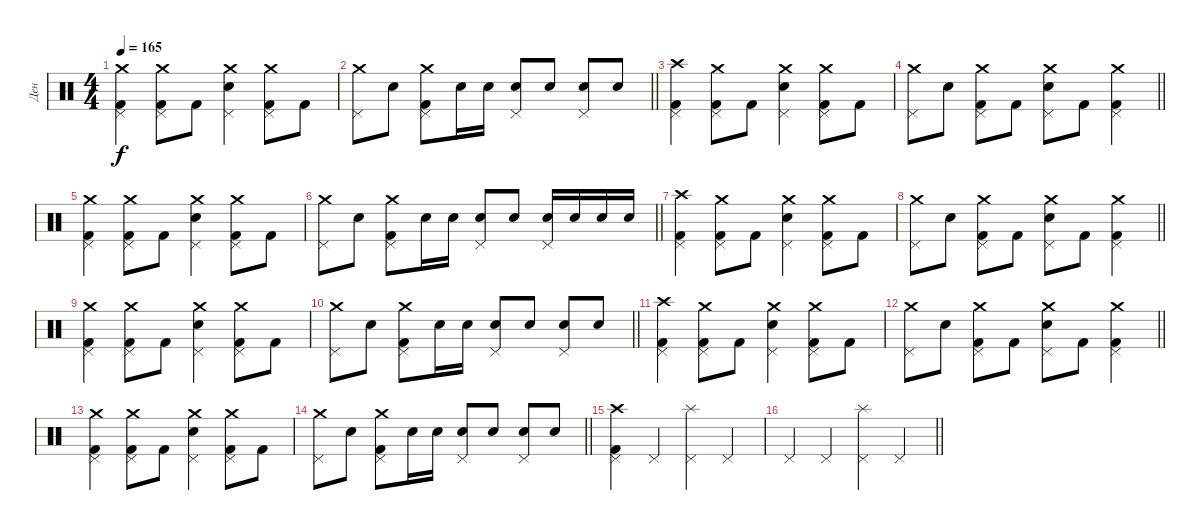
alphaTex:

\track ("Ден" "Ден") {instrument percussion}
\staff {score}
\articulation defaults
\ts (4 4)
\tempo 165
\clef neutral
\ks c
("Crash medium (hit)" "Kick (hit) 2" "Pedal Hi-Hat (hit)").4{dy f} ("Crash medium (hit)" "Kick (hit) 2" "Pedal Hi-Hat (hit)").8 "Kick (hit) 2".8 ("Crash medium (hit)" "Snare (hit) 2" "Pedal Hi-Hat (hit)").4 ("Crash medium (hit)" "Kick (hit) 2" "Pedal Hi-Hat (hit)").8 "Kick (hit) 2".8 |
\barLineRight lightlight
("Crash medium (hit)" "Pedal Hi-Hat (hit)").8 "Snare (hit) 2".8 ("Crash medium (hit)" "Kick (hit) 2" "Pedal Hi-Hat (hit)").8 "Snare (hit) 2".16 "Snare (hit) 2".16 ("Snare (hit) 2" "Pedal Hi-Hat (hit)").8 "Snare (hit) 2".8 ("Snare (hit) 2" "Pedal Hi-Hat (hit)").8 "Snare (hit) 2".8 |
("Crash high (hit)" "Kick (hit) 2" "Pedal Hi-Hat (hit)").4 ("Crash medium (hit)" "Kick (hit) 2" "Pedal Hi-Hat (hit)").8 "Kick (hit) 2".8 ("Crash medium (hit)" "Snare (hit) 2" "Pedal Hi-Hat (hit)").4 ("Crash medium (hit)" "Kick (hit) 2" "Pedal Hi-Hat (hit)").8 "Kick (hit) 2".8 |
\barLineRight lightlight
("Crash medium (hit)" "Pedal Hi-Hat (hit)").8 "Snare (hit) 2".8 ("Crash medium (hit)" "Kick (hit) 2" "Pedal Hi-Hat (hit)").8 "Kick (hit) 2".8 ("Crash medium (hit)" "Snare (hit) 2" "Pedal Hi-Hat (hit)").8 "Kick (hit) 2".8 ("Crash medium (hit)" "Kick (hit) 2" "Pedal Hi-Hat (hit)").4 |
("Crash medium (hit)" "Kick (hit) 2" "Pedal Hi-Hat (hit)").4 ("Crash medium (hit)" "Kick (hit) 2" "Pedal Hi-Hat (hit)").8 "Kick (hit) 2".8 ("Crash medium (hit)" "Snare (hit) 2" "Pedal Hi-Hat (hit)").4 ("Crash medium (hit)" "Kick (hit) 2" "Pedal Hi-Hat (hit)").8 "Kick (hit) 2".8 |
\barLineRight lightlight
("Crash medium (hit)" "Pedal Hi-Hat (hit)").8 "Snare (hit) 2".8 ("Crash medium (hit)" "Kick (hit) 2" "Pedal Hi-Hat (hit)").8 "Snare (hit) 2".16 "Snare (hit) 2".16 ("Snare (hit) 2" "Pedal Hi-Hat (hit)").8 "Snare (hit) 2".8 ("Snare (hit) 2" "Pedal Hi-Hat (hit)").16 "Snare (hit) 2".16 "Snare (hit) 2".16 "Snare (hit) 2".16 |
("Crash high (hit)" "Kick (hit) 2" "Pedal Hi-Hat (hit)").4 ("Crash medium (hit)" "Kick (hit) 2" "Pedal Hi-Hat (hit)").8 "Kick (hit) 2".8 ("Crash medium (hit)" "Snare (hit) 2" "Pedal Hi-Hat (hit)").4 ("Crash medium (hit)" "Kick (hit) 2" "Pedal Hi-Hat (hit)").8 "Kick (hit) 2".8 |
\barLineRight lightlight
("Crash medium (hit)" "Pedal Hi-Hat (hit)").8 "Snare (hit) 2".8 ("Crash medium (hit)" "Kick (hit) 2" "Pedal Hi-Hat (hit)").8 "Kick (hit) 2".8 ("Crash medium (hit)" "Snare (hit) 2" "Pedal Hi-Hat (hit)").8 "Kick (hit) 2".8 ("Crash medium (hit)" "Kick (hit) 2" "Pedal Hi-Hat (hit)").4 |
("Crash medium (hit)" "Kick (hit) 2" "Pedal Hi-Hat (hit)").4 ("Crash medium (hit)" "Kick (hit) 2" "Pedal Hi-Hat (hit)").8 "Kick (hit) 2".8 ("Crash medium (hit)" "Snare (hit) 2" "Pedal Hi-Hat (hit)").4 ("Crash medium (hit)" "Kick (hit) 2" "Pedal Hi-Hat (hit)").8 "Kick (hit) 2".8 |
\barLineRight lightlight
("Crash medium (hit)" "Pedal Hi-Hat (hit)").8 "Snare (hit) 2".8 ("Crash medium (hit)" "Kick (hit) 2" "Pedal Hi-Hat (hit)").8 "Snare (hit) 2".16 "Snare (hit) 2".16 ("Snare (hit) 2" "Pedal Hi-Hat (hit)").8 "Snare (hit) 2".8 ("Snare (hit) 2" "Pedal Hi-Hat (hit)").8 "Snare (hit) 2".8 |
("Crash high (hit)" "Kick (hit) 2" "Pedal Hi-Hat (hit)").4 ("Crash medium (hit)" "Kick (hit) 2" "Pedal Hi-Hat (hit)").8 "Kick (hit) 2".8 ("Crash medium (hit)" "Snare (hit) 2" "Pedal Hi-Hat (hit)").4 ("Crash medium (hit)" "Kick (hit) 2" "Pedal Hi-Hat (hit)").8 "Kick (hit) 2".8 |
\barLineRight lightlight
("Crash medium (hit)" "Pedal Hi-Hat (hit)").8 "Snare (hit) 2".8 ("Crash medium (hit)" "Kick (hit) 2" "Pedal Hi-Hat (hit)").8 "Kick (hit) 2".8 ("Crash medium (hit)" "Snare (hit) 2" "Pedal Hi-Hat (hit)").8 "Kick (hit) 2".8 ("Crash medium (hit)" "Kick (hit) 2" "Pedal Hi-Hat (hit)").4 |
("Crash medium (hit)" "Kick (hit) 2" "Pedal Hi-Hat (hit)").4 ("Crash medium (hit)" "Kick (hit) 2" "Pedal Hi-Hat (hit)").8 "Kick (hit) 2".8 ("Crash medium (hit)" "Snare (hit) 2" "Pedal Hi-Hat (hit)").4 ("Crash medium (hit)" "Kick (hit) 2" "Pedal Hi-Hat (hit)").8 "Kick (hit) 2".8 |
\barLineRight lightlight
("Crash medium (hit)" "Pedal Hi-Hat (hit)").8 "Snare (hit) 2".8 ("Crash medium (hit)" "Kick (hit) 2" "Pedal Hi-Hat (hit)").8 "Snare (hit) 2".16 "Snare (hit) 2".16 ("Snare (hit) 2" "Pedal Hi-Hat (hit)").8 "Snare (hit) 2".8 ("Snare (hit) 2" "Pedal Hi-Hat (hit)").8 "Snare (hit) 2".8 |
("Crash high (hit)" "Kick (hit) 2" "Pedal Hi-Hat (hit)").4 "Pedal Hi-Hat (hit)".4 ("Splash (hit)" "Pedal Hi-Hat (hit)").4 "Pedal Hi-Hat (hit)".4 |
\barLineRight lightlight "Pedal Hi-Hat (hit)".4 "Pedal Hi-Hat (hit)".4
("Splash (hit)" "Pedal Hi-Hat (hit)").4 "Pedal Hi-Hat (hit)".4
